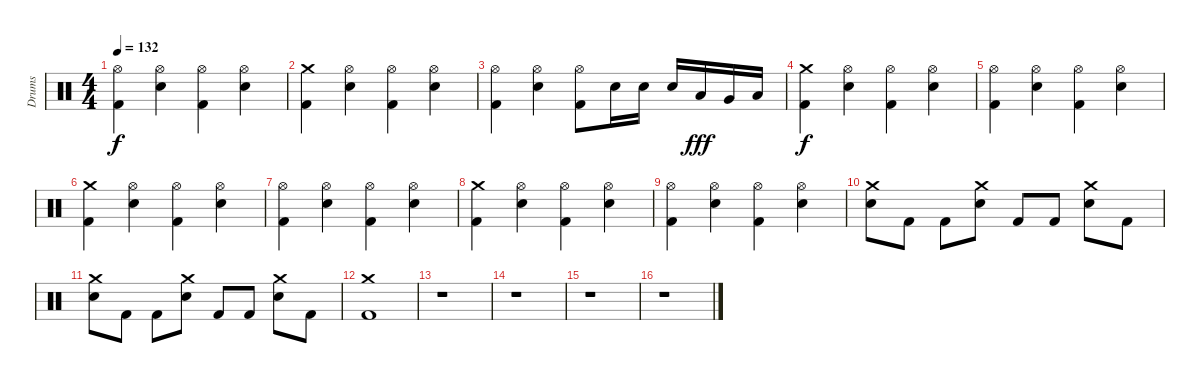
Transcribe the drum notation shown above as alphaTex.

\track ("Drums" "Drums") {instrument percussion}
\staff {score}
\articulation defaults
\ts (4 4)
\tempo 132
\clef neutral
\ks c
("Kick (hit) 2" "Hi-Hat (open)").4{dy f} ("Hi-Hat (open)" "Snare (hit) 2").4 ("Kick (hit) 2" "Hi-Hat (open)").4 ("Hi-Hat (open)" "Snare (hit) 2").4 |
("Kick (hit) 2" "Crash medium (hit)").4 ("Hi-Hat (open)" "Snare (hit) 2").4 ("Kick (hit) 2" "Hi-Hat (open)").4 ("Hi-Hat (open)" "Snare (hit) 2").4 |
("Kick (hit) 2" "Hi-Hat (open)").4 ("Hi-Hat (open)" "Snare (hit) 2").4 ("Kick (hit) 2" "Hi-Hat (open)").8 "Snare (hit) 2".16 "Snare (hit) 2".16 "Snare (hit) 2".16 "Low Tom (hit)".16{dy fff} "Very Low Tom (hit)".16 "Low Floor Tom (hit)".16 |
("Kick (hit) 2" "Crash medium (hit)").4{dy f} ("Hi-Hat (open)" "Snare (hit) 2").4 ("Kick (hit) 2" "Hi-Hat (open)").4 ("Hi-Hat (open)" "Snare (hit) 2").4 |
("Kick (hit) 2" "Hi-Hat (open)").4 ("Hi-Hat (open)" "Snare (hit) 2").4 ("Kick (hit) 2" "Hi-Hat (open)").4 ("Hi-Hat (open)" "Snare (hit) 2").4 |
("Kick (hit) 2" "Crash medium (hit)").4 ("Hi-Hat (open)" "Snare (hit) 2").4 ("Kick (hit) 2" "Hi-Hat (open)").4 ("Hi-Hat (open)" "Snare (hit) 2").4 |
("Kick (hit) 2" "Hi-Hat (open)").4 ("Hi-Hat (open)" "Snare (hit) 2").4 ("Kick (hit) 2" "Hi-Hat (open)").4 ("Hi-Hat (open)" "Snare (hit) 2").4 |
("Kick (hit) 2" "Crash medium (hit)").4 ("Hi-Hat (open)" "Snare (hit) 2").4 ("Kick (hit) 2" "Hi-Hat (open)").4 ("Hi-Hat (open)" "Snare (hit) 2").4 |
("Kick (hit) 2" "Hi-Hat (open)").4 ("Hi-Hat (open)" "Snare (hit) 2").4 ("Kick (hit) 2" "Hi-Hat (open)").4 ("Hi-Hat (open)" "Snare (hit) 2").4 |
("Crash medium (hit)" "Snare (hit) 2").8 "Kick (hit) 2".8 "Kick (hit) 2".8 ("Crash medium (hit)" "Snare (hit) 2").8 "Kick (hit) 2".8 "Kick (hit) 2".8 ("Crash medium (hit)" "Snare (hit) 2").8 "Kick (hit) 2".8 |
("Crash medium (hit)" "Snare (hit) 2").8 "Kick (hit) 2".8 "Kick (hit) 2".8 ("Crash medium (hit)" "Snare (hit) 2").8 "Kick (hit) 2".8 "Kick (hit) 2".8 ("Crash medium (hit)" "Snare (hit) 2").8 "Kick (hit) 2".8 |
("Kick (hit) 2" "Crash medium (hit)").1 |
r.1 |
r.1 |
r.1 |
r.1
